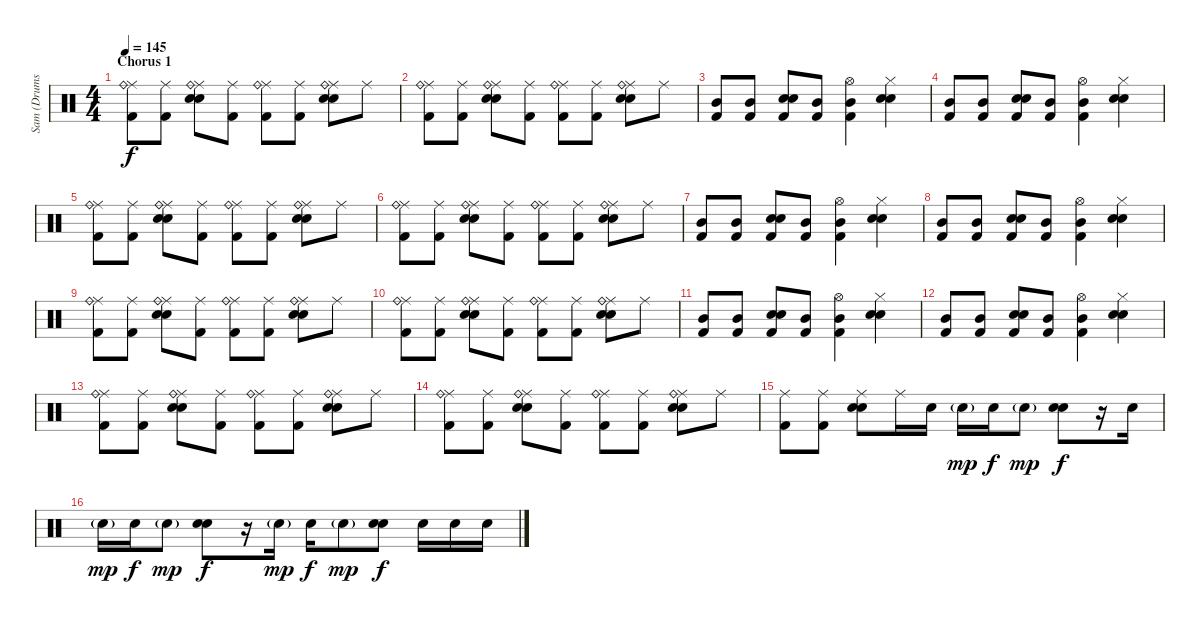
\track ("Sam (Drums)" "Sam (Drums") {instrument percussion}
\staff {score}
\articulation defaults
\ts (4 4)
\section ("" "Chorus 1")
\tempo 145
\clef neutral
\ks c
("Ride (middle)" "Ride (bell)" "Kick (hit) 2").8{dy f} ("Ride (middle)" "Kick (hit) 2").8 ("Ride (middle)" "Ride (bell)" "Electric Snare (hit)" "Snare (hit) 2").8 ("Ride (middle)" "Kick (hit) 2").8 ("Ride (middle)" "Ride (bell)" "Kick (hit) 2").8 ("Ride (middle)" "Kick (hit) 2").8 ("Ride (middle)" "Ride (bell)" "Electric Snare (hit)" "Snare (hit) 2").8 "Ride (middle)".8 |
("Ride (middle)" "Ride (bell)" "Kick (hit) 2").8 ("Ride (middle)" "Kick (hit) 2").8 ("Ride (middle)" "Ride (bell)" "Electric Snare (hit)" "Snare (hit) 2").8 ("Ride (middle)" "Kick (hit) 2").8 ("Ride (middle)" "Ride (bell)" "Kick (hit) 2").8 ("Ride (middle)" "Kick (hit) 2").8 ("Ride (middle)" "Ride (bell)" "Electric Snare (hit)" "Snare (hit) 2").8 "Ride (middle)".8 |
("Mid Tom (hit)" "Kick (hit) 2").8 ("Mid Tom (hit)" "Kick (hit) 2").8 ("Electric Snare (hit)" "Snare (hit) 2" "Kick (hit) 2").8 ("Mid Tom (hit)" "Kick (hit) 2").8 ("Hi-Hat (open)" "Mid Tom (hit)" "Kick (hit) 2").4 ("Hi-Hat (closed)" "Electric Snare (hit)" "Snare (hit) 2").4 |
("Mid Tom (hit)" "Kick (hit) 2").8 ("Mid Tom (hit)" "Kick (hit) 2").8 ("Electric Snare (hit)" "Snare (hit) 2" "Kick (hit) 2").8 ("Mid Tom (hit)" "Kick (hit) 2").8 ("Hi-Hat (open)" "Mid Tom (hit)" "Kick (hit) 2").4 ("Hi-Hat (closed)" "Electric Snare (hit)" "Snare (hit) 2").4 |
("Ride (middle)" "Ride (bell)" "Kick (hit) 2").8 ("Ride (middle)" "Kick (hit) 2").8 ("Ride (middle)" "Ride (bell)" "Electric Snare (hit)" "Snare (hit) 2").8 ("Ride (middle)" "Kick (hit) 2").8 ("Ride (middle)" "Ride (bell)" "Kick (hit) 2").8 ("Ride (middle)" "Kick (hit) 2").8 ("Ride (middle)" "Ride (bell)" "Electric Snare (hit)" "Snare (hit) 2").8 "Ride (middle)".8 |
("Ride (middle)" "Ride (bell)" "Kick (hit) 2").8 ("Ride (middle)" "Kick (hit) 2").8 ("Ride (middle)" "Ride (bell)" "Electric Snare (hit)" "Snare (hit) 2").8 ("Ride (middle)" "Kick (hit) 2").8 ("Ride (middle)" "Ride (bell)" "Kick (hit) 2").8 ("Ride (middle)" "Kick (hit) 2").8 ("Ride (middle)" "Ride (bell)" "Electric Snare (hit)" "Snare (hit) 2").8 "Ride (middle)".8 |
("Mid Tom (hit)" "Kick (hit) 2").8 ("Mid Tom (hit)" "Kick (hit) 2").8 ("Electric Snare (hit)" "Snare (hit) 2" "Kick (hit) 2").8 ("Mid Tom (hit)" "Kick (hit) 2").8 ("Hi-Hat (open)" "Mid Tom (hit)" "Kick (hit) 2").4 ("Hi-Hat (closed)" "Electric Snare (hit)" "Snare (hit) 2").4 |
("Mid Tom (hit)" "Kick (hit) 2").8 ("Mid Tom (hit)" "Kick (hit) 2").8 ("Electric Snare (hit)" "Snare (hit) 2" "Kick (hit) 2").8 ("Mid Tom (hit)" "Kick (hit) 2").8 ("Hi-Hat (open)" "Mid Tom (hit)" "Kick (hit) 2").4 ("Hi-Hat (closed)" "Electric Snare (hit)" "Snare (hit) 2").4 |
("Ride (middle)" "Ride (bell)" "Kick (hit) 2").8 ("Ride (middle)" "Kick (hit) 2").8 ("Ride (middle)" "Ride (bell)" "Electric Snare (hit)" "Snare (hit) 2").8 ("Ride (middle)" "Kick (hit) 2").8 ("Ride (middle)" "Ride (bell)" "Kick (hit) 2").8 ("Ride (middle)" "Kick (hit) 2").8 ("Ride (middle)" "Ride (bell)" "Electric Snare (hit)" "Snare (hit) 2").8 "Ride (middle)".8 |
("Ride (middle)" "Ride (bell)" "Kick (hit) 2").8 ("Ride (middle)" "Kick (hit) 2").8 ("Ride (middle)" "Ride (bell)" "Electric Snare (hit)" "Snare (hit) 2").8 ("Ride (middle)" "Kick (hit) 2").8 ("Ride (middle)" "Ride (bell)" "Kick (hit) 2").8 ("Ride (middle)" "Kick (hit) 2").8 ("Ride (middle)" "Ride (bell)" "Electric Snare (hit)" "Snare (hit) 2").8 "Ride (middle)".8 |
("Mid Tom (hit)" "Kick (hit) 2").8 ("Mid Tom (hit)" "Kick (hit) 2").8 ("Electric Snare (hit)" "Snare (hit) 2" "Kick (hit) 2").8 ("Mid Tom (hit)" "Kick (hit) 2").8 ("Hi-Hat (open)" "Mid Tom (hit)" "Kick (hit) 2").4 ("Hi-Hat (closed)" "Electric Snare (hit)" "Snare (hit) 2").4 |
("Mid Tom (hit)" "Kick (hit) 2").8 ("Mid Tom (hit)" "Kick (hit) 2").8 ("Electric Snare (hit)" "Snare (hit) 2" "Kick (hit) 2").8 ("Mid Tom (hit)" "Kick (hit) 2").8 ("Hi-Hat (open)" "Mid Tom (hit)" "Kick (hit) 2").4 ("Hi-Hat (closed)" "Electric Snare (hit)" "Snare (hit) 2").4 |
("Ride (middle)" "Ride (bell)" "Kick (hit) 2").8 ("Ride (middle)" "Kick (hit) 2").8 ("Ride (middle)" "Ride (bell)" "Electric Snare (hit)" "Snare (hit) 2").8 ("Ride (middle)" "Kick (hit) 2").8 ("Ride (middle)" "Ride (bell)" "Kick (hit) 2").8 ("Ride (middle)" "Kick (hit) 2").8 ("Ride (middle)" "Ride (bell)" "Electric Snare (hit)" "Snare (hit) 2").8 "Ride (middle)".8 |
("Ride (middle)" "Ride (bell)" "Kick (hit) 2").8 ("Ride (middle)" "Kick (hit) 2").8 ("Ride (middle)" "Ride (bell)" "Electric Snare (hit)" "Snare (hit) 2").8 ("Ride (middle)" "Kick (hit) 2").8 ("Ride (middle)" "Ride (bell)" "Kick (hit) 2").8 ("Ride (middle)" "Kick (hit) 2").8 ("Ride (middle)" "Ride (bell)" "Electric Snare (hit)" "Snare (hit) 2").8 "Ride (middle)".8 |
("Ride (middle)" "Kick (hit) 2").8 ("Ride (middle)" "Kick (hit) 2").8 ("Ride (middle)" "Electric Snare (hit)" "Snare (hit) 2").8 "Ride (middle)".16 "Snare (hit) 2".16 "Snare (hit) 2"{g}.16{dy mp} "Snare (hit) 2".16{dy f} "Snare (hit) 2"{g}.8{dy mp} ("Snare (hit) 2" "Electric Snare (hit)").8{dy f} r.16 "Snare (hit) 2".16 |
"Snare (hit) 2"{g}.16{dy mp} "Snare (hit) 2".16{dy f} "Snare (hit) 2"{g}.8{dy mp} ("Electric Snare (hit)" "Snare (hit) 2").8{dy f} r.16 "Snare (hit) 2"{g}.16{dy mp} "Snare (hit) 2".16{dy f} "Snare (hit) 2"{g}.8{dy mp} ("Electric Snare (hit)" "Snare (hit) 2").8{dy f} "Snare (hit) 2".16 "Snare (hit) 2".16 "Snare (hit) 2".16
